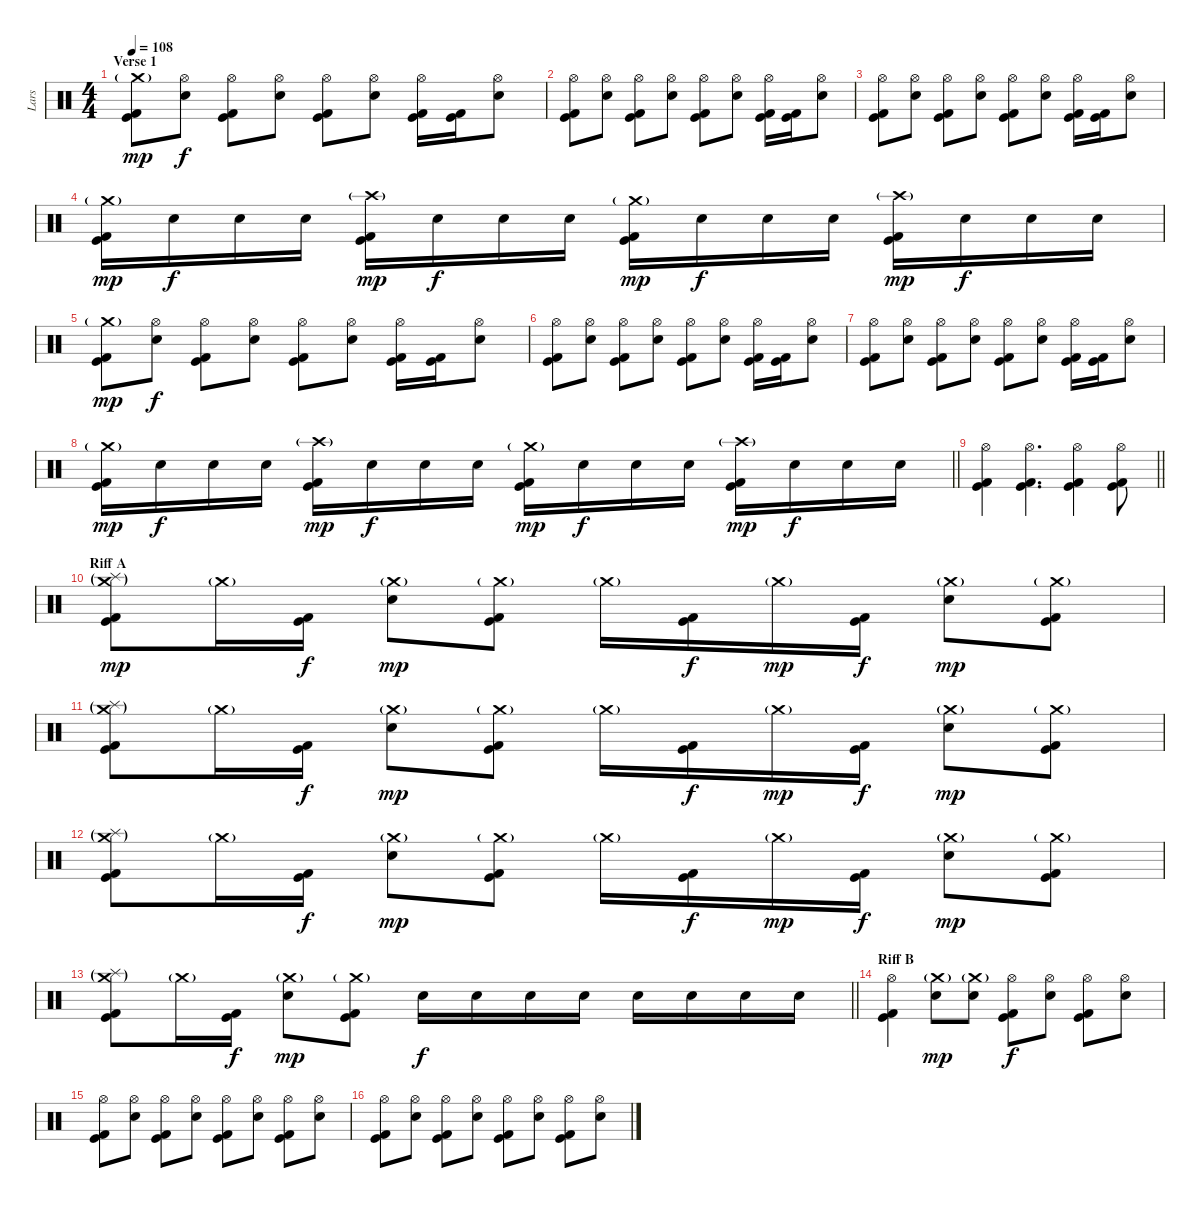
\track ("Lars" "Lars") {instrument percussion}
\staff {score}
\articulation defaults
\ts (4 4)
\section ("" "Verse 1")
\tempo 108
\clef neutral
\ks c
("Crash medium (hit)"{g} "Kick (hit)" "Kick (hit) 2").8{dy mp} ("Hi-Hat (open)" "Electric Snare (hit)").8{dy f} ("Hi-Hat (open)" "Kick (hit)" "Kick (hit) 2").8 ("Hi-Hat (open)" "Electric Snare (hit)").8 ("Hi-Hat (open)" "Kick (hit)" "Kick (hit) 2").8 ("Hi-Hat (open)" "Electric Snare (hit)").8 ("Hi-Hat (open)" "Kick (hit)" "Kick (hit) 2").16 ("Kick (hit)" "Kick (hit) 2").16 ("Hi-Hat (open)" "Electric Snare (hit)").8 |
("Hi-Hat (open)" "Kick (hit)" "Kick (hit) 2").8 ("Hi-Hat (open)" "Electric Snare (hit)").8 ("Hi-Hat (open)" "Kick (hit)" "Kick (hit) 2").8 ("Hi-Hat (open)" "Electric Snare (hit)").8 ("Hi-Hat (open)" "Kick (hit)" "Kick (hit) 2").8 ("Hi-Hat (open)" "Electric Snare (hit)").8 ("Hi-Hat (open)" "Kick (hit)" "Kick (hit) 2").16 ("Kick (hit)" "Kick (hit) 2").16 ("Hi-Hat (open)" "Electric Snare (hit)").8 |
("Hi-Hat (open)" "Kick (hit)" "Kick (hit) 2").8 ("Hi-Hat (open)" "Electric Snare (hit)").8 ("Hi-Hat (open)" "Kick (hit)" "Kick (hit) 2").8 ("Hi-Hat (open)" "Electric Snare (hit)").8 ("Hi-Hat (open)" "Kick (hit)" "Kick (hit) 2").8 ("Hi-Hat (open)" "Electric Snare (hit)").8 ("Hi-Hat (open)" "Kick (hit)" "Kick (hit) 2").16 ("Kick (hit)" "Kick (hit) 2").16 ("Hi-Hat (open)" "Electric Snare (hit)").8 |
("Crash medium (hit)"{g} "Kick (hit)" "Kick (hit) 2").16{dy mp} "Electric Snare (hit)".16{dy f} "Electric Snare (hit)".16 "Electric Snare (hit)".16 ("Crash high (hit)"{g} "Kick (hit)" "Kick (hit) 2").16{dy mp} "Electric Snare (hit)".16{dy f} "Electric Snare (hit)".16 "Electric Snare (hit)".16 ("Crash medium (hit)"{g} "Kick (hit)" "Kick (hit) 2").16{dy mp} "Electric Snare (hit)".16{dy f} "Electric Snare (hit)".16 "Electric Snare (hit)".16 ("Crash high (hit)"{g} "Kick (hit)" "Kick (hit) 2").16{dy mp} "Electric Snare (hit)".16{dy f} "Electric Snare (hit)".16 "Electric Snare (hit)".16 |
("Crash medium (hit)"{g} "Kick (hit)" "Kick (hit) 2").8{dy mp} ("Hi-Hat (open)" "Electric Snare (hit)").8{dy f} ("Hi-Hat (open)" "Kick (hit)" "Kick (hit) 2").8 ("Hi-Hat (open)" "Electric Snare (hit)").8 ("Hi-Hat (open)" "Kick (hit)" "Kick (hit) 2").8 ("Hi-Hat (open)" "Electric Snare (hit)").8 ("Hi-Hat (open)" "Kick (hit)" "Kick (hit) 2").16 ("Kick (hit)" "Kick (hit) 2").16 ("Hi-Hat (open)" "Electric Snare (hit)").8 |
("Hi-Hat (open)" "Kick (hit)" "Kick (hit) 2").8 ("Hi-Hat (open)" "Electric Snare (hit)").8 ("Hi-Hat (open)" "Kick (hit)" "Kick (hit) 2").8 ("Hi-Hat (open)" "Electric Snare (hit)").8 ("Hi-Hat (open)" "Kick (hit)" "Kick (hit) 2").8 ("Hi-Hat (open)" "Electric Snare (hit)").8 ("Hi-Hat (open)" "Kick (hit)" "Kick (hit) 2").16 ("Kick (hit)" "Kick (hit) 2").16 ("Hi-Hat (open)" "Electric Snare (hit)").8 |
("Hi-Hat (open)" "Kick (hit)" "Kick (hit) 2").8 ("Hi-Hat (open)" "Electric Snare (hit)").8 ("Hi-Hat (open)" "Kick (hit)" "Kick (hit) 2").8 ("Hi-Hat (open)" "Electric Snare (hit)").8 ("Hi-Hat (open)" "Kick (hit)" "Kick (hit) 2").8 ("Hi-Hat (open)" "Electric Snare (hit)").8 ("Hi-Hat (open)" "Kick (hit)" "Kick (hit) 2").16 ("Kick (hit)" "Kick (hit) 2").16 ("Hi-Hat (open)" "Electric Snare (hit)").8 |
\barLineRight lightlight
("Crash medium (hit)"{g} "Kick (hit)" "Kick (hit) 2").16{dy mp} "Electric Snare (hit)".16{dy f} "Electric Snare (hit)".16 "Electric Snare (hit)".16 ("Crash high (hit)"{g} "Kick (hit)" "Kick (hit) 2").16{dy mp} "Electric Snare (hit)".16{dy f} "Electric Snare (hit)".16 "Electric Snare (hit)".16 ("Crash medium (hit)"{g} "Kick (hit)" "Kick (hit) 2").16{dy mp} "Electric Snare (hit)".16{dy f} "Electric Snare (hit)".16 "Electric Snare (hit)".16 ("Crash high (hit)"{g} "Kick (hit)" "Kick (hit) 2").16{dy mp} "Electric Snare (hit)".16{dy f} "Electric Snare (hit)".16 "Electric Snare (hit)".16 |
\section ("" "")
\barLineRight lightlight
("Hi-Hat (open)" "Kick (hit)" "Kick (hit) 2").4 ("Hi-Hat (open)" "Kick (hit)" "Kick (hit) 2").4{d} ("Hi-Hat (open)" "Kick (hit)" "Kick (hit) 2").4 ("Hi-Hat (open)" "Kick (hit)" "Kick (hit) 2").8 |
\section ("" "Riff A")
("Crash medium (hit)"{g} "Splash (hit)"{g} "Kick (hit)" "Kick (hit) 2").8{dy mp} "Crash medium (hit)"{g}.16 ("Kick (hit)" "Kick (hit) 2").16{dy f} ("Crash medium (hit)"{g} "Electric Snare (hit)").8{dy mp} ("Crash medium (hit)"{g} "Kick (hit)" "Kick (hit) 2").8 "Crash medium (hit)"{g}.16 ("Kick (hit)" "Kick (hit) 2").16{dy f} "Crash medium (hit)"{g}.16{dy mp} ("Kick (hit)" "Kick (hit) 2").16{dy f} ("Crash medium (hit)"{g} "Electric Snare (hit)").8{dy mp} ("Crash medium (hit)"{g} "Kick (hit)" "Kick (hit) 2").8 |
("Crash medium (hit)"{g} "Splash (hit)"{g} "Kick (hit)" "Kick (hit) 2").8 "Crash medium (hit)"{g}.16 ("Kick (hit)" "Kick (hit) 2").16{dy f} ("Crash medium (hit)"{g} "Electric Snare (hit)").8{dy mp} ("Crash medium (hit)"{g} "Kick (hit)" "Kick (hit) 2").8 "Crash medium (hit)"{g}.16 ("Kick (hit)" "Kick (hit) 2").16{dy f} "Crash medium (hit)"{g}.16{dy mp} ("Kick (hit)" "Kick (hit) 2").16{dy f} ("Crash medium (hit)"{g} "Electric Snare (hit)").8{dy mp} ("Crash medium (hit)"{g} "Kick (hit)" "Kick (hit) 2").8 |
("Crash medium (hit)"{g} "Splash (hit)"{g} "Kick (hit)" "Kick (hit) 2").8 "Crash medium (hit)"{g}.16 ("Kick (hit)" "Kick (hit) 2").16{dy f} ("Crash medium (hit)"{g} "Electric Snare (hit)").8{dy mp} ("Crash medium (hit)"{g} "Kick (hit)" "Kick (hit) 2").8 "Crash medium (hit)"{g}.16 ("Kick (hit)" "Kick (hit) 2").16{dy f} "Crash medium (hit)"{g}.16{dy mp} ("Kick (hit)" "Kick (hit) 2").16{dy f} ("Crash medium (hit)"{g} "Electric Snare (hit)").8{dy mp} ("Crash medium (hit)"{g} "Kick (hit)" "Kick (hit) 2").8 |
\barLineRight lightlight
("Crash medium (hit)"{g} "Splash (hit)"{g} "Kick (hit)" "Kick (hit) 2").8 "Crash medium (hit)"{g}.16 ("Kick (hit)" "Kick (hit) 2").16{dy f} ("Crash medium (hit)"{g} "Electric Snare (hit)").8{dy mp} ("Crash medium (hit)"{g} "Kick (hit)" "Kick (hit) 2").8 "Electric Snare (hit)".16{dy f} "Electric Snare (hit)".16 "Electric Snare (hit)".16 "Electric Snare (hit)".16 "Electric Snare (hit)".16 "Electric Snare (hit)".16 "Electric Snare (hit)".16 "Electric Snare (hit)".16 |
\section ("" "Riff B")
("Hi-Hat (open)" "Kick (hit)" "Kick (hit) 2").4 ("Crash medium (hit)"{g} "Electric Snare (hit)").8{dy mp} ("Crash medium (hit)"{g} "Electric Snare (hit)").8 ("Hi-Hat (open)" "Kick (hit)" "Kick (hit) 2").8{dy f} ("Hi-Hat (open)" "Electric Snare (hit)").8 ("Hi-Hat (open)" "Kick (hit)" "Kick (hit) 2").8 ("Hi-Hat (open)" "Electric Snare (hit)").8 |
("Hi-Hat (open)" "Kick (hit)" "Kick (hit) 2").8 ("Hi-Hat (open)" "Electric Snare (hit)").8 ("Hi-Hat (open)" "Kick (hit)" "Kick (hit) 2").8 ("Hi-Hat (open)" "Electric Snare (hit)").8 ("Hi-Hat (open)" "Kick (hit)" "Kick (hit) 2").8 ("Hi-Hat (open)" "Electric Snare (hit)").8 ("Hi-Hat (open)" "Kick (hit)" "Kick (hit) 2").8 ("Hi-Hat (open)" "Electric Snare (hit)").8 |
("Hi-Hat (open)" "Kick (hit)" "Kick (hit) 2").8 ("Hi-Hat (open)" "Electric Snare (hit)").8 ("Hi-Hat (open)" "Kick (hit)" "Kick (hit) 2").8 ("Hi-Hat (open)" "Electric Snare (hit)").8 ("Hi-Hat (open)" "Kick (hit)" "Kick (hit) 2").8 ("Hi-Hat (open)" "Electric Snare (hit)").8 ("Hi-Hat (open)" "Kick (hit)" "Kick (hit) 2").8 ("Hi-Hat (open)" "Electric Snare (hit)").8
